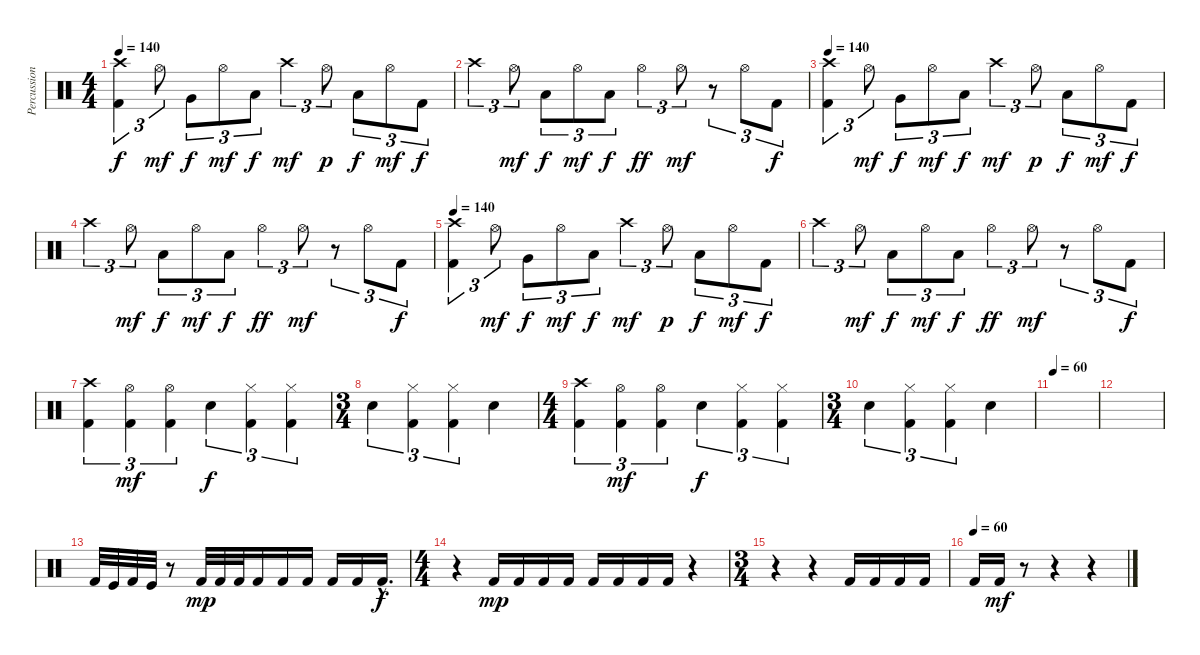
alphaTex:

\track ("Percussion" "Percussion") {instrument percussion}
\staff {score}
\articulation defaults
\ts (4 4)
\tempo 140
\clef neutral
\ks c
("Crash high (hit)" "Kick (hit) 2").4{tu (3 2) dy f} "Hi-Hat (open)".8{tu (3 2) dy mf} "Very Low Tom (hit)".8{tu (3 2) dy f} "Hi-Hat (open)".8{tu (3 2) dy mf} "Low Floor Tom (hit)".8{tu (3 2) dy f} "Crash high (hit)".4{tu (3 2) dy mf} "Hi-Hat (open)".8{tu (3 2) dy p} "Low Floor Tom (hit)".8{tu (3 2) dy f} "Hi-Hat (open)".8{tu (3 2) dy mf} "Kick (hit) 2".8{tu (3 2) dy f} |
"Crash high (hit)".4{tu (3 2)} "Hi-Hat (open)".8{tu (3 2) dy mf} "Low Floor Tom (hit)".8{tu (3 2) dy f} "Hi-Hat (open)".8{tu (3 2) dy mf} "Low Floor Tom (hit)".8{tu (3 2) dy f} "Hi-Hat (open)".4{tu (3 2) dy ff} "Hi-Hat (open)".8{tu (3 2) dy mf} r.8{tu (3 2)} "Hi-Hat (open)".8{tu (3 2)} "Kick (hit) 2".8{tu (3 2) dy f} |
\tempo 140
("Crash high (hit)" "Kick (hit) 2").4{tu (3 2)} "Hi-Hat (open)".8{tu (3 2) dy mf} "Very Low Tom (hit)".8{tu (3 2) dy f} "Hi-Hat (open)".8{tu (3 2) dy mf} "Low Floor Tom (hit)".8{tu (3 2) dy f} "Crash high (hit)".4{tu (3 2) dy mf} "Hi-Hat (open)".8{tu (3 2) dy p} "Low Floor Tom (hit)".8{tu (3 2) dy f} "Hi-Hat (open)".8{tu (3 2) dy mf} "Kick (hit) 2".8{tu (3 2) dy f} |
"Crash high (hit)".4{tu (3 2)} "Hi-Hat (open)".8{tu (3 2) dy mf} "Low Floor Tom (hit)".8{tu (3 2) dy f} "Hi-Hat (open)".8{tu (3 2) dy mf} "Low Floor Tom (hit)".8{tu (3 2) dy f} "Hi-Hat (open)".4{tu (3 2) dy ff} "Hi-Hat (open)".8{tu (3 2) dy mf} r.8{tu (3 2)} "Hi-Hat (open)".8{tu (3 2)} "Kick (hit) 2".8{tu (3 2) dy f} |
\tempo 140
("Crash high (hit)" "Kick (hit) 2").4{tu (3 2)} "Hi-Hat (open)".8{tu (3 2) dy mf} "Very Low Tom (hit)".8{tu (3 2) dy f} "Hi-Hat (open)".8{tu (3 2) dy mf} "Low Floor Tom (hit)".8{tu (3 2) dy f} "Crash high (hit)".4{tu (3 2) dy mf} "Hi-Hat (open)".8{tu (3 2) dy p} "Low Floor Tom (hit)".8{tu (3 2) dy f} "Hi-Hat (open)".8{tu (3 2) dy mf} "Kick (hit) 2".8{tu (3 2) dy f} |
"Crash high (hit)".4{tu (3 2)} "Hi-Hat (open)".8{tu (3 2) dy mf} "Low Floor Tom (hit)".8{tu (3 2) dy f} "Hi-Hat (open)".8{tu (3 2) dy mf} "Low Floor Tom (hit)".8{tu (3 2) dy f} "Hi-Hat (open)".4{tu (3 2) dy ff} "Hi-Hat (open)".8{tu (3 2) dy mf} r.8{tu (3 2)} "Hi-Hat (open)".8{tu (3 2)} "Kick (hit) 2".8{tu (3 2) dy f} |
("Crash high (hit)" "Kick (hit) 2").4{tu (3 2)} ("Hi-Hat (open)" "Kick (hit) 2").4{tu (3 2) dy mf} ("Hi-Hat (open)" "Kick (hit) 2").4{tu (3 2)} "Snare (hit) 2".4{tu (3 2) dy f} ("Hi-Hat (closed)" "Kick (hit) 2").4{tu (3 2)} ("Hi-Hat (closed)" "Kick (hit) 2").4{tu (3 2)} |
\ts (3 4)
"Snare (hit) 2".4{tu (3 2)} ("Hi-Hat (closed)" "Kick (hit) 2").4{tu (3 2)} ("Hi-Hat (closed)" "Kick (hit) 2").4{tu (3 2)} "Snare (hit) 2".4 |
\ts (4 4)
("Crash high (hit)" "Kick (hit) 2").4{tu (3 2)} ("Hi-Hat (open)" "Kick (hit) 2").4{tu (3 2) dy mf} ("Hi-Hat (open)" "Kick (hit) 2").4{tu (3 2)} "Snare (hit) 2".4{tu (3 2) dy f} ("Hi-Hat (closed)" "Kick (hit) 2").4{tu (3 2)} ("Hi-Hat (closed)" "Kick (hit) 2").4{tu (3 2)} |
\ts (3 4)
"Snare (hit) 2".4{tu (3 2)} ("Hi-Hat (closed)" "Kick (hit) 2").4{tu (3 2)} ("Hi-Hat (closed)" "Kick (hit) 2").4{tu (3 2)} "Snare (hit) 2".4 |
\tempo 60
|
|
"Kick (hit) 2".32 "Kick (hit)".32 "Kick (hit) 2".32 "Kick (hit)".32 r.8 "Kick (hit) 2".32{dy mp} "Kick (hit) 2".32 "Kick (hit) 2".32 "Kick (hit) 2".16 "Kick (hit) 2".16 "Kick (hit) 2".16 "Kick (hit) 2".16 "Kick (hit) 2".16 "Kick (hit) 2"{hac}.16{d dy f} |
\ts (4 4)
r.4 "Kick (hit) 2".16{dy mp} "Kick (hit) 2".16 "Kick (hit) 2".16 "Kick (hit) 2".16 "Kick (hit) 2".16 "Kick (hit) 2".16 "Kick (hit) 2".16 "Kick (hit) 2".16 r.4 |
\ts (3 4)
r.4 r.4 "Kick (hit) 2".16 "Kick (hit) 2".16 "Kick (hit) 2".16 "Kick (hit) 2".16 |
\tempo (60)
"Kick (hit) 2".16 "Kick (hit) 2".16{dy mf} r.8 r.4 r.4
